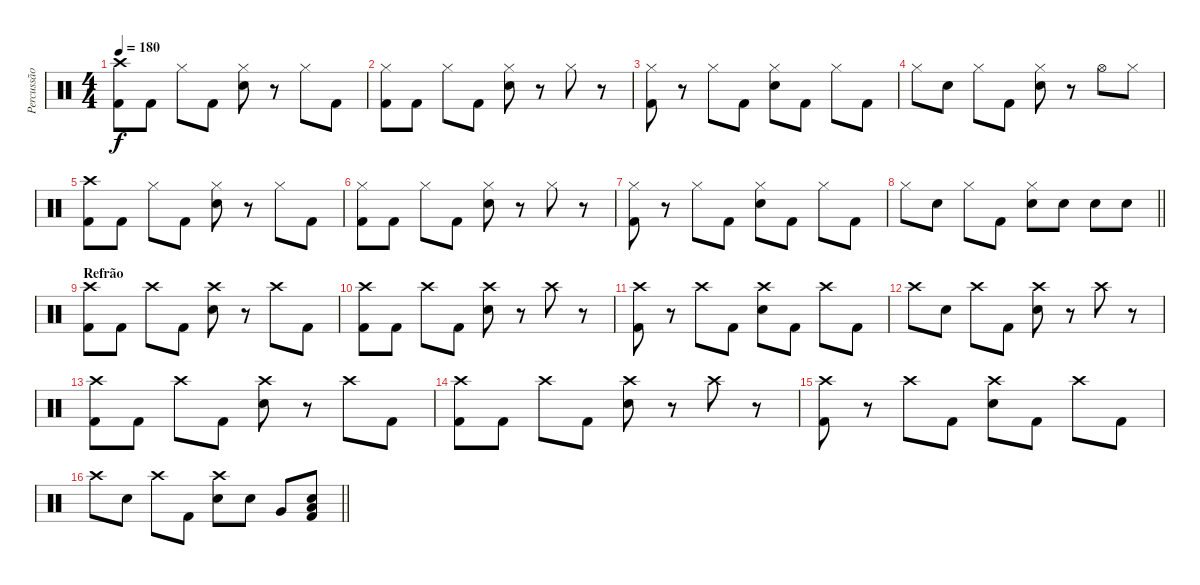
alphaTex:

\track ("Percussão" "Percussão") {instrument percussion}
\staff {score}
\articulation defaults
\ts (4 4)
\tempo 180
\clef neutral
\ks c
("Crash high (hit)" "Kick (hit) 2").8{dy f} "Kick (hit) 2".8 "Hi-Hat (closed)".8 "Kick (hit) 2".8 ("Hi-Hat (closed)" "Electric Snare (hit)").8 r.8 "Hi-Hat (closed)".8 "Kick (hit) 2".8 |
("Hi-Hat (closed)" "Kick (hit) 2").8 "Kick (hit) 2".8 "Hi-Hat (closed)".8 "Kick (hit) 2".8 ("Hi-Hat (closed)" "Electric Snare (hit)").8 r.8 "Hi-Hat (closed)".8 r.8 |
("Hi-Hat (closed)" "Kick (hit) 2").8 r.8 "Hi-Hat (closed)".8 "Kick (hit) 2".8 ("Hi-Hat (closed)" "Electric Snare (hit)").8 "Kick (hit) 2".8 "Hi-Hat (closed)".8 "Kick (hit) 2".8 |
"Hi-Hat (closed)".8 "Electric Snare (hit)".8 "Hi-Hat (closed)".8 "Kick (hit) 2".8 ("Hi-Hat (closed)" "Electric Snare (hit)").8 r.8 "Hi-Hat (open)".8 "Hi-Hat (closed)".8 |
("Crash high (hit)" "Kick (hit) 2").8 "Kick (hit) 2".8 "Hi-Hat (closed)".8 "Kick (hit) 2".8 ("Hi-Hat (closed)" "Electric Snare (hit)").8 r.8 "Hi-Hat (closed)".8 "Kick (hit) 2".8 |
("Hi-Hat (closed)" "Kick (hit) 2").8 "Kick (hit) 2".8 "Hi-Hat (closed)".8 "Kick (hit) 2".8 ("Hi-Hat (closed)" "Electric Snare (hit)").8 r.8 "Hi-Hat (closed)".8 r.8 |
("Hi-Hat (closed)" "Kick (hit) 2").8 r.8 "Hi-Hat (closed)".8 "Kick (hit) 2".8 ("Hi-Hat (closed)" "Electric Snare (hit)").8 "Kick (hit) 2".8 "Hi-Hat (closed)".8 "Kick (hit) 2".8 |
\barLineRight lightlight "Hi-Hat (closed)".8 "Electric Snare (hit)".8 "Hi-Hat (closed)".8 "Kick (hit) 2".8
("Hi-Hat (closed)" "Electric Snare (hit)").8 "Electric Snare (hit)".8 "Electric Snare (hit)".8 "Electric Snare (hit)".8 |
\section ("" "Refrão")
("Crash high (hit)" "Kick (hit) 2").8 "Kick (hit) 2".8 "Crash high (hit)".8 "Kick (hit) 2".8 ("Crash high (hit)" "Electric Snare (hit)").8 r.8 "Crash high (hit)".8 "Kick (hit) 2".8 |
("Crash high (hit)" "Kick (hit) 2").8 "Kick (hit) 2".8 "Crash high (hit)".8 "Kick (hit) 2".8 ("Crash high (hit)" "Electric Snare (hit)").8 r.8 "Crash high (hit)".8 r.8 |
("Crash high (hit)" "Kick (hit) 2").8 r.8 "Crash high (hit)".8 "Kick (hit) 2".8 ("Crash high (hit)" "Electric Snare (hit)").8 "Kick (hit) 2".8 "Crash high (hit)".8 "Kick (hit) 2".8 |
"Crash high (hit)".8 "Electric Snare (hit)".8 "Crash high (hit)".8 "Kick (hit) 2".8 ("Crash high (hit)" "Electric Snare (hit)").8 r.8 "Crash high (hit)".8 r.8 |
("Crash high (hit)" "Kick (hit) 2").8 "Kick (hit) 2".8 "Crash high (hit)".8 "Kick (hit) 2".8 ("Crash high (hit)" "Electric Snare (hit)").8 r.8 "Crash high (hit)".8 "Kick (hit) 2".8 |
("Crash high (hit)" "Kick (hit) 2").8 "Kick (hit) 2".8 "Crash high (hit)".8 "Kick (hit) 2".8 ("Crash high (hit)" "Electric Snare (hit)").8 r.8 "Crash high (hit)".8 r.8 |
("Crash high (hit)" "Kick (hit) 2").8 r.8 "Crash high (hit)".8 "Kick (hit) 2".8 ("Crash high (hit)" "Electric Snare (hit)").8 "Kick (hit) 2".8 "Crash high (hit)".8 "Kick (hit) 2".8 |
\barLineRight lightlight "Crash high (hit)".8 "Electric Snare (hit)".8 "Crash high (hit)".8 "Kick (hit) 2".8
("Crash high (hit)" "Electric Snare (hit)").8 "Electric Snare (hit)".8 "Very Low Tom (hit)".8 ("Low Tom (hit)" "Electric Snare (hit)" "Kick (hit) 2").8
